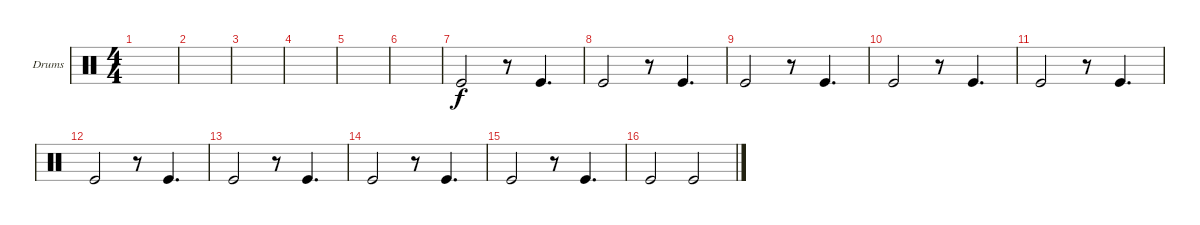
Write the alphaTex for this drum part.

\defaultSystemsLayout 4
\bracketExtendMode groupsimilarinstruments
\firstSystemTrackNameOrientation horizontal
\otherSystemsTrackNameOrientation horizontal
\track ("Drumkit" "Drums") {instrument percussion}
\staff {score}
\articulation defaults
\ts (4 4)
\tempo (120 hide)
\clef neutral
\ks c
|
|
|
|
|
|
"Kick (hit)".2 r.8 "Kick (hit)".4{d} |
"Kick (hit)".2 r.8 "Kick (hit)".4{d} |
"Kick (hit)".2 r.8 "Kick (hit)".4{d} |
"Kick (hit)".2 r.8 "Kick (hit)".4{d} |
"Kick (hit)".2 r.8 "Kick (hit)".4{d} |
"Kick (hit)".2 r.8 "Kick (hit)".4{d} |
"Kick (hit)".2 r.8 "Kick (hit)".4{d} |
"Kick (hit)".2 r.8 "Kick (hit)".4{d} |
"Kick (hit)".2 r.8 "Kick (hit)".4{d} |
"Kick (hit)".2 "Kick (hit)".2
